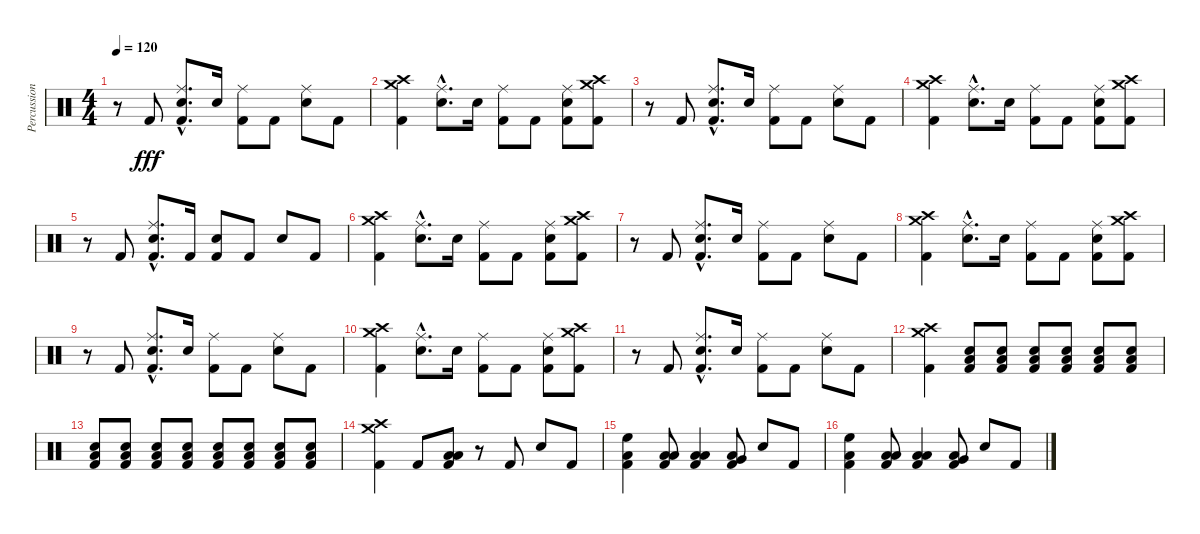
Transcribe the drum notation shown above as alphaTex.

\track ("Percussion" "Percussion") {instrument percussion}
\staff {score}
\articulation defaults
\ts (4 4)
\tempo 120
\clef neutral
\ks c
r.8{dy fff} "Kick (hit) 2".8 ("Ride (middle)"{hac} "Snare (hit) 2"{hac} "Kick (hit) 2"{hac}).8{d} "Snare (hit) 2".16 ("Ride (middle)" "Kick (hit) 2").8 "Kick (hit) 2".8 ("Ride (middle)" "Snare (hit) 2").8 "Kick (hit) 2".8 |
("Crash high (hit)" "Crash medium (hit)" "Kick (hit) 2").4 ("Ride (middle)"{hac} "Snare (hit) 2"{hac}).8{d} "Snare (hit) 2".16 ("Ride (middle)" "Kick (hit) 2").8 "Kick (hit) 2".8 ("Ride (middle)" "Snare (hit) 2" "Kick (hit) 2").8 ("Crash medium (hit)" "Crash high (hit)" "Kick (hit) 2").8 |
r.8 "Kick (hit) 2".8 ("Ride (middle)"{hac} "Snare (hit) 2"{hac} "Kick (hit) 2"{hac}).8{d} "Snare (hit) 2".16 ("Ride (middle)" "Kick (hit) 2").8 "Kick (hit) 2".8 ("Ride (middle)" "Snare (hit) 2").8 "Kick (hit) 2".8 |
("Crash high (hit)" "Crash medium (hit)" "Kick (hit) 2").4 ("Ride (middle)"{hac} "Snare (hit) 2"{hac}).8{d} "Snare (hit) 2".16 ("Ride (middle)" "Kick (hit) 2").8 "Kick (hit) 2".8 ("Ride (middle)" "Snare (hit) 2" "Kick (hit) 2").8 ("Crash medium (hit)" "Crash high (hit)" "Kick (hit) 2").8 |
r.8 "Kick (hit) 2".8 ("Ride (middle)"{hac} "Snare (hit) 2"{hac} "Kick (hit) 2"{hac}).8{d} "Kick (hit) 2".16 ("Snare (hit) 2" "Kick (hit) 2").8 "Kick (hit) 2".8 "Snare (hit) 2".8 "Kick (hit) 2".8 |
("Crash high (hit)" "Crash medium (hit)" "Kick (hit) 2").4 ("Ride (middle)"{hac} "Snare (hit) 2"{hac}).8{d} "Snare (hit) 2".16 ("Ride (middle)" "Kick (hit) 2").8 "Kick (hit) 2".8 ("Ride (middle)" "Snare (hit) 2" "Kick (hit) 2").8 ("Crash medium (hit)" "Crash high (hit)" "Kick (hit) 2").8 |
r.8 "Kick (hit) 2".8 ("Ride (middle)"{hac} "Snare (hit) 2"{hac} "Kick (hit) 2"{hac}).8{d} "Snare (hit) 2".16 ("Ride (middle)" "Kick (hit) 2").8 "Kick (hit) 2".8 ("Ride (middle)" "Snare (hit) 2").8 "Kick (hit) 2".8 |
("Crash high (hit)" "Crash medium (hit)" "Kick (hit) 2").4 ("Ride (middle)"{hac} "Snare (hit) 2"{hac}).8{d} "Snare (hit) 2".16 ("Ride (middle)" "Kick (hit) 2").8 "Kick (hit) 2".8 ("Ride (middle)" "Snare (hit) 2" "Kick (hit) 2").8 ("Crash medium (hit)" "Crash high (hit)" "Kick (hit) 2").8 |
r.8 "Kick (hit) 2".8 ("Ride (middle)"{hac} "Snare (hit) 2"{hac} "Kick (hit) 2"{hac}).8{d} "Snare (hit) 2".16 ("Ride (middle)" "Kick (hit) 2").8 "Kick (hit) 2".8 ("Ride (middle)" "Snare (hit) 2").8 "Kick (hit) 2".8 |
("Crash high (hit)" "Crash medium (hit)" "Kick (hit) 2").4 ("Ride (middle)"{hac} "Snare (hit) 2"{hac}).8{d} "Snare (hit) 2".16 ("Ride (middle)" "Kick (hit) 2").8 "Kick (hit) 2".8 ("Ride (middle)" "Snare (hit) 2" "Kick (hit) 2").8 ("Crash medium (hit)" "Crash high (hit)" "Kick (hit) 2").8 |
r.8 "Kick (hit) 2".8 ("Ride (middle)"{hac} "Snare (hit) 2"{hac} "Kick (hit) 2"{hac}).8{d} "Snare (hit) 2".16 ("Ride (middle)" "Kick (hit) 2").8 "Kick (hit) 2".8 ("Ride (middle)" "Snare (hit) 2").8 "Kick (hit) 2".8 |
("Crash high (hit)" "Crash medium (hit)" "Kick (hit) 2").4 ("Low Floor Tom (hit)" "Snare (hit) 2" "Kick (hit) 2").8 ("Low Floor Tom (hit)" "Snare (hit) 2" "Kick (hit) 2").8 ("Low Floor Tom (hit)" "Snare (hit) 2" "Kick (hit) 2").8 ("Low Floor Tom (hit)" "Snare (hit) 2" "Kick (hit) 2").8 ("Low Floor Tom (hit)" "Snare (hit) 2" "Kick (hit) 2").8 ("Low Floor Tom (hit)" "Snare (hit) 2" "Kick (hit) 2").8 |
("Low Floor Tom (hit)" "Snare (hit) 2" "Kick (hit) 2").8 ("Low Floor Tom (hit)" "Snare (hit) 2" "Kick (hit) 2").8 ("Low Floor Tom (hit)" "Snare (hit) 2" "Kick (hit) 2").8 ("Low Floor Tom (hit)" "Snare (hit) 2" "Kick (hit) 2").8 ("Low Floor Tom (hit)" "Snare (hit) 2" "Kick (hit) 2").8 ("Low Floor Tom (hit)" "Snare (hit) 2" "Kick (hit) 2").8 ("Low Floor Tom (hit)" "Snare (hit) 2" "Kick (hit) 2").8 ("Low Floor Tom (hit)" "Snare (hit) 2" "Kick (hit) 2").8 |
("Crash medium (hit)" "Crash high (hit)" "Kick (hit) 2").4 "Kick (hit) 2".8 ("Low Tom (hit)" "Low Floor Tom (hit)" "Kick (hit) 2").8 r.8 "Kick (hit) 2".8 "Snare (hit) 2".8 "Kick (hit) 2".8 |
("High Floor Tom (hit)" "Low Tom (hit)" "Kick (hit) 2").4 ("Low Floor Tom (hit)" "Low Tom (hit)" "Kick (hit) 2").8 ("Low Floor Tom (hit)" "Low Tom (hit)" "Kick (hit) 2").4 ("Low Floor Tom (hit)" "Very Low Tom (hit)" "Kick (hit) 2").8 "Snare (hit) 2".8 "Kick (hit) 2".8 |
("High Floor Tom (hit)" "Low Tom (hit)" "Kick (hit) 2").4 ("Low Floor Tom (hit)" "Low Tom (hit)" "Kick (hit) 2").8 ("Low Floor Tom (hit)" "Low Tom (hit)" "Kick (hit) 2").4 ("Low Floor Tom (hit)" "Very Low Tom (hit)" "Kick (hit) 2").8 "Snare (hit) 2".8 "Kick (hit) 2".8
